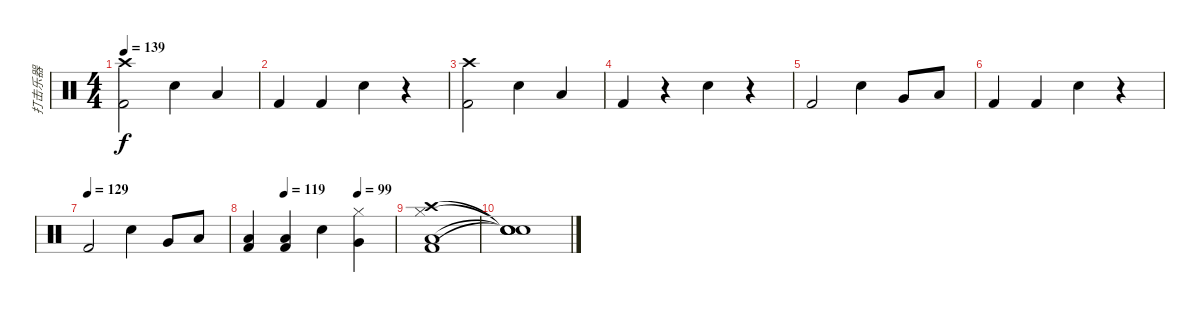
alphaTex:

\track ("打击乐器" "打击乐器") {instrument percussion}
\staff {score}
\articulation defaults
\ts (4 4)
\tempo 139
\clef neutral
\ks c
("Crash high (hit)" "Kick (hit) 2").2{dy f} "Electric Snare (hit)".4 "Low Floor Tom (hit)".4 |
"Kick (hit) 2".4 "Kick (hit) 2".4 "Electric Snare (hit)".4 r.4 |
("Crash high (hit)" "Kick (hit) 2").2 "Electric Snare (hit)".4 "Low Floor Tom (hit)".4 |
"Kick (hit) 2".4 r.4 "Electric Snare (hit)".4 r.4 |
"Kick (hit) 2".2 "Electric Snare (hit)".4 "Very Low Tom (hit)".8 "Low Floor Tom (hit)".8 |
"Kick (hit) 2".4 "Kick (hit) 2".4 "Electric Snare (hit)".4 r.4 |
\tempo (129)
"Kick (hit) 2".2 "Electric Snare (hit)".4 "Very Low Tom (hit)".8 "Low Floor Tom (hit)".8 |
\tempo (119 0.25)
\tempo (99 0.75)
("Kick (hit) 2" "Low Floor Tom (hit)").4 ("Kick (hit) 2" "Low Floor Tom (hit)").4 "Electric Snare (hit)".4 ("Very Low Tom (hit)" "Hi-Hat (closed)").4 |
("Crash high (hit)" "Kick (hit) 2" "Hi-Hat (closed)" "Low Floor Tom (hit)").1 |
("Snare (hit)"{t} "Snare (hit)"{t} "Snare (hit)"{t} "Snare (hit)"{t}).1
